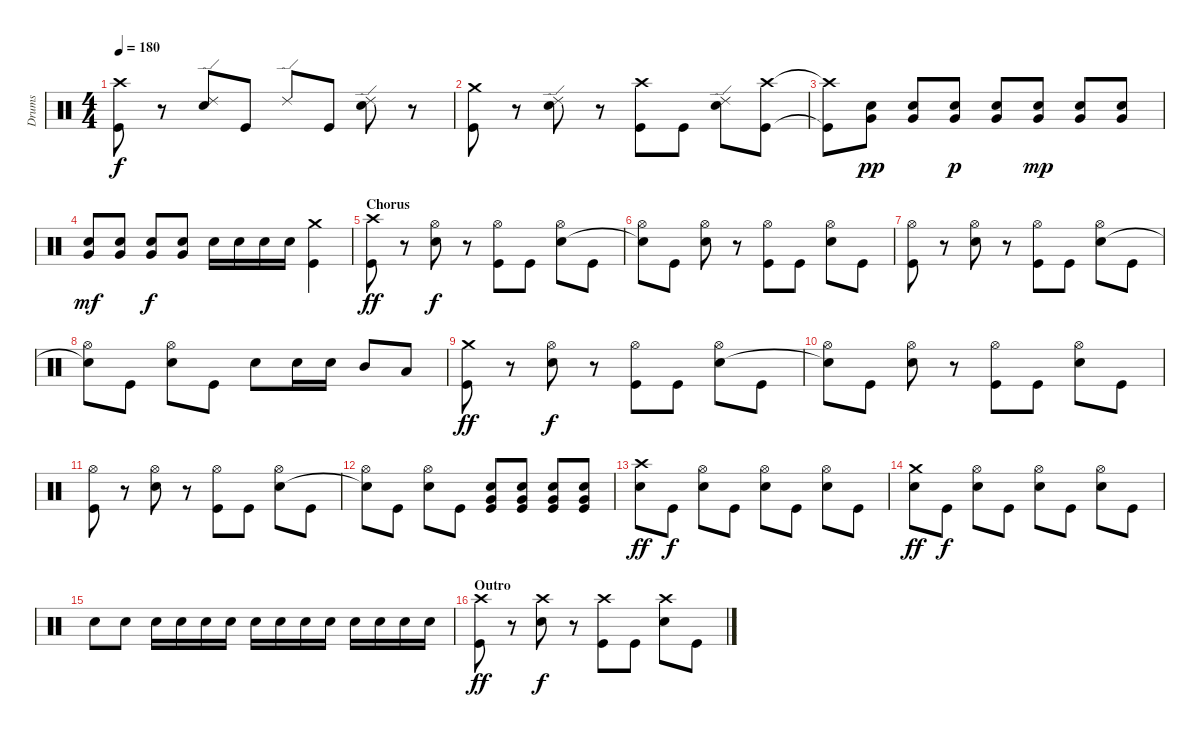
\track ("Drums" "Drums") {instrument percussion}
\staff {score}
\articulation defaults
\ts (4 4)
\tempo 180
\clef neutral
\ks c
("Crash high (hit)" "Kick (hit)").8{dy f} r.8 ("Ride (edge) 2" "Snare (hit) 2").8 "Kick (hit)".8 "Ride (edge) 2".8 "Kick (hit)".8 ("Ride (edge) 2" "Snare (hit) 2").8 r.8 |
("Crash medium (hit)" "Kick (hit)").8 r.8 ("Ride (edge) 2" "Snare (hit) 2").8 r.8 ("Crash high (hit)" "Kick (hit)").8 "Kick (hit)".8 ("Ride (edge) 2" "Snare (hit) 2").8 ("Crash high (hit)" "Kick (hit)").8 |
("Crash high (hit)"{t} "Kick (hit)"{t}).8 ("Very Low Tom (hit)" "Snare (hit) 2").8{dy pp} ("Very Low Tom (hit)" "Snare (hit) 2").8 ("Very Low Tom (hit)" "Snare (hit) 2").8{dy p} ("Very Low Tom (hit)" "Snare (hit) 2").8 ("Very Low Tom (hit)" "Snare (hit) 2").8{dy mp} ("Very Low Tom (hit)" "Snare (hit) 2").8 ("Very Low Tom (hit)" "Snare (hit) 2").8 |
("Very Low Tom (hit)" "Snare (hit) 2").8{dy mf} ("Very Low Tom (hit)" "Snare (hit) 2").8 ("Very Low Tom (hit)" "Snare (hit) 2").8{dy f} ("Very Low Tom (hit)" "Snare (hit) 2").8 "Snare (hit) 2".16 "Snare (hit) 2".16 "Snare (hit) 2".16 "Snare (hit) 2".16 ("Crash medium (hit)" "Kick (hit)").4 |
\section ("" "Chorus")
("Crash high (hit)" "Kick (hit)").8{dy ff} r.8 ("Hi-Hat (open)" "Snare (hit) 2").8{dy f} r.8 ("Hi-Hat (open)" "Kick (hit)").8 "Kick (hit)".8 ("Hi-Hat (open)" "Snare (hit) 2").8 "Kick (hit)".8 |
("Hi-Hat (open)" "Snare (hit)"{t}).8 "Kick (hit)".8 ("Hi-Hat (open)" "Snare (hit) 2").8 r.8 ("Hi-Hat (open)" "Kick (hit)").8 "Kick (hit)".8 ("Hi-Hat (open)" "Snare (hit) 2").8 "Kick (hit)".8 |
("Hi-Hat (open)" "Kick (hit)").8 r.8 ("Hi-Hat (open)" "Snare (hit) 2").8 r.8 ("Hi-Hat (open)" "Kick (hit)").8 "Kick (hit)".8 ("Hi-Hat (open)" "Snare (hit) 2").8 "Kick (hit)".8 |
("Hi-Hat (open)" "Snare (hit)"{t}).8 "Kick (hit)".8 ("Hi-Hat (open)" "Snare (hit) 2").8 "Kick (hit)".8 "Snare (hit) 2".8 "Snare (hit) 2".16 "Snare (hit) 2".16 "Mid Tom (hit)".8 "Low Tom (hit)".8 |
("Crash medium (hit)" "Kick (hit)").8{dy ff} r.8 ("Hi-Hat (open)" "Snare (hit) 2").8{dy f} r.8 ("Hi-Hat (open)" "Kick (hit)").8 "Kick (hit)".8 ("Hi-Hat (open)" "Snare (hit) 2").8 "Kick (hit)".8 |
("Hi-Hat (open)" "Snare (hit)"{t}).8 "Kick (hit)".8 ("Hi-Hat (open)" "Snare (hit) 2").8 r.8 ("Hi-Hat (open)" "Kick (hit)").8 "Kick (hit)".8 ("Hi-Hat (open)" "Snare (hit) 2").8 "Kick (hit)".8 |
("Hi-Hat (open)" "Kick (hit)").8 r.8 ("Hi-Hat (open)" "Snare (hit) 2").8 r.8 ("Hi-Hat (open)" "Kick (hit)").8 "Kick (hit)".8 ("Hi-Hat (open)" "Snare (hit) 2").8 "Kick (hit)".8 |
("Hi-Hat (open)" "Snare (hit)"{t}).8 "Kick (hit)".8 ("Hi-Hat (open)" "Snare (hit) 2").8 "Kick (hit)".8 ("Very Low Tom (hit)" "Snare (hit) 2" "Kick (hit)").8 ("Very Low Tom (hit)" "Snare (hit) 2" "Kick (hit)").8 ("Very Low Tom (hit)" "Snare (hit) 2" "Kick (hit)").8 ("Very Low Tom (hit)" "Snare (hit) 2" "Kick (hit)").8 |
("Crash high (hit)" "Snare (hit) 2").8{dy ff} "Kick (hit)".8{dy f} ("Hi-Hat (open)" "Snare (hit) 2").8 "Kick (hit)".8 ("Hi-Hat (open)" "Snare (hit) 2").8 "Kick (hit)".8 ("Hi-Hat (open)" "Snare (hit) 2").8 "Kick (hit)".8 |
("Crash medium (hit)" "Snare (hit) 2").8{dy ff} "Kick (hit)".8{dy f} ("Hi-Hat (open)" "Snare (hit) 2").8 "Kick (hit)".8 ("Hi-Hat (open)" "Snare (hit) 2").8 "Kick (hit)".8 ("Hi-Hat (open)" "Snare (hit) 2").8 "Kick (hit)".8 |
"Snare (hit) 2".8 "Snare (hit) 2".8 "Snare (hit) 2".16 "Snare (hit) 2".16 "Snare (hit) 2".16 "Snare (hit) 2".16 "Snare (hit) 2".16 "Snare (hit) 2".16 "Snare (hit) 2".16 "Snare (hit) 2".16 "Snare (hit) 2".16 "Snare (hit) 2".16 "Snare (hit) 2".16 "Snare (hit) 2".16 |
\section ("" "Outro")
("Crash high (hit)" "Kick (hit)").8{dy ff} r.8 ("Crash high (hit)" "Snare (hit) 2").8{dy f} r.8 ("Crash high (hit)" "Kick (hit)").8 "Kick (hit)".8 ("Crash high (hit)" "Snare (hit) 2").8 "Kick (hit)".8
